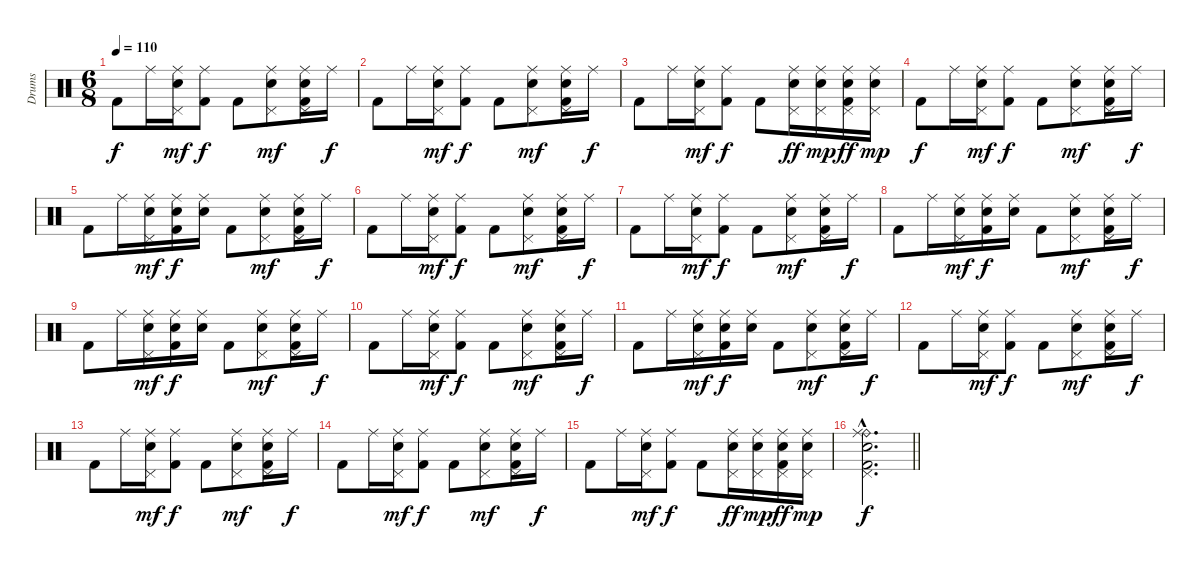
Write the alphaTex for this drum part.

\track ("Drums" "Drums") {instrument percussion}
\staff {score}
\articulation defaults
\ts (6 8)
\tempo 110
\clef neutral
\ks c "Kick (hit) 2".8{dy f} "Ride (middle)".16
("Ride (middle)" "Pedal Hi-Hat (hit)" "Electric Snare (hit)").16{dy mf} ("Ride (middle)" "Kick (hit) 2").8{dy f} "Kick (hit) 2".8 ("Ride (middle)" "Pedal Hi-Hat (hit)" "Electric Snare (hit)").8{dy mf} ("Ride (middle)" "Pedal Hi-Hat (hit)" "Electric Snare (hit)" "Kick (hit) 2").16 "Ride (middle)".16{dy f} |
"Kick (hit) 2".8 "Ride (middle)".16 ("Ride (middle)" "Pedal Hi-Hat (hit)" "Electric Snare (hit)").16{dy mf} ("Ride (middle)" "Kick (hit) 2").8{dy f} "Kick (hit) 2".8 ("Ride (middle)" "Pedal Hi-Hat (hit)" "Electric Snare (hit)").8{dy mf} ("Ride (middle)" "Pedal Hi-Hat (hit)" "Electric Snare (hit)" "Kick (hit) 2").16 "Ride (middle)".16{dy f} |
"Kick (hit) 2".8 "Ride (middle)".16 ("Ride (middle)" "Pedal Hi-Hat (hit)" "Electric Snare (hit)").16{dy mf} ("Ride (middle)" "Kick (hit) 2").8{dy f} "Kick (hit) 2".8 ("Ride (middle)" "Pedal Hi-Hat (hit)" "Electric Snare (hit)").16{dy ff} ("Ride (middle)" "Pedal Hi-Hat (hit)" "Electric Snare (hit)").16{dy mp} ("Ride (middle)" "Pedal Hi-Hat (hit)" "Electric Snare (hit)" "Kick (hit) 2").16{dy ff} ("Ride (middle)" "Pedal Hi-Hat (hit)" "Electric Snare (hit)").16{dy mp} |
"Kick (hit) 2".8{dy f} "Ride (middle)".16 ("Ride (middle)" "Pedal Hi-Hat (hit)" "Electric Snare (hit)").16{dy mf} ("Ride (middle)" "Kick (hit) 2").8{dy f} "Kick (hit) 2".8 ("Ride (middle)" "Pedal Hi-Hat (hit)" "Electric Snare (hit)").8{dy mf} ("Ride (middle)" "Pedal Hi-Hat (hit)" "Electric Snare (hit)" "Kick (hit) 2").16 "Ride (middle)".16{dy f} |
"Kick (hit) 2".8 "Ride (middle)".16 ("Ride (middle)" "Pedal Hi-Hat (hit)" "Electric Snare (hit)").16{dy mf} ("Ride (middle)" "Electric Snare (hit)" "Kick (hit) 2").16{dy f} ("Ride (middle)" "Electric Snare (hit)").16 "Kick (hit) 2".8 ("Ride (middle)" "Pedal Hi-Hat (hit)" "Electric Snare (hit)").8{dy mf} ("Ride (middle)" "Pedal Hi-Hat (hit)" "Electric Snare (hit)" "Kick (hit) 2").16 "Ride (middle)".16{dy f} |
"Kick (hit) 2".8 "Ride (middle)".16 ("Ride (middle)" "Pedal Hi-Hat (hit)" "Electric Snare (hit)").16{dy mf} ("Ride (middle)" "Kick (hit) 2").8{dy f} "Kick (hit) 2".8 ("Ride (middle)" "Pedal Hi-Hat (hit)" "Electric Snare (hit)").8{dy mf} ("Ride (middle)" "Pedal Hi-Hat (hit)" "Electric Snare (hit)" "Kick (hit) 2").16 "Ride (middle)".16{dy f} |
"Kick (hit) 2".8 "Ride (middle)".16 ("Ride (middle)" "Pedal Hi-Hat (hit)" "Electric Snare (hit)").16{dy mf} ("Ride (middle)" "Kick (hit) 2").8{dy f} "Kick (hit) 2".8 ("Ride (middle)" "Pedal Hi-Hat (hit)" "Electric Snare (hit)").8{dy mf} ("Ride (middle)" "Pedal Hi-Hat (hit)" "Electric Snare (hit)" "Kick (hit) 2").16 "Ride (middle)".16{dy f} |
"Kick (hit) 2".8 "Ride (middle)".16 ("Ride (middle)" "Pedal Hi-Hat (hit)" "Electric Snare (hit)").16{dy mf} ("Ride (middle)" "Electric Snare (hit)" "Kick (hit) 2").16{dy f} ("Ride (middle)" "Electric Snare (hit)").16 "Kick (hit) 2".8 ("Ride (middle)" "Pedal Hi-Hat (hit)" "Electric Snare (hit)").8{dy mf} ("Ride (middle)" "Pedal Hi-Hat (hit)" "Electric Snare (hit)" "Kick (hit) 2").16 "Ride (middle)".16{dy f} |
"Kick (hit) 2".8 "Ride (middle)".16 ("Ride (middle)" "Pedal Hi-Hat (hit)" "Electric Snare (hit)").16{dy mf} ("Ride (middle)" "Electric Snare (hit)" "Kick (hit) 2").16{dy f} ("Ride (middle)" "Electric Snare (hit)").16 "Kick (hit) 2".8 ("Ride (middle)" "Pedal Hi-Hat (hit)" "Electric Snare (hit)").8{dy mf} ("Ride (middle)" "Pedal Hi-Hat (hit)" "Electric Snare (hit)" "Kick (hit) 2").16 "Ride (middle)".16{dy f} |
"Kick (hit) 2".8 "Ride (middle)".16 ("Ride (middle)" "Pedal Hi-Hat (hit)" "Electric Snare (hit)").16{dy mf} ("Ride (middle)" "Kick (hit) 2").8{dy f} "Kick (hit) 2".8 ("Ride (middle)" "Pedal Hi-Hat (hit)" "Electric Snare (hit)").8{dy mf} ("Ride (middle)" "Pedal Hi-Hat (hit)" "Electric Snare (hit)" "Kick (hit) 2").16 "Ride (middle)".16{dy f} |
"Kick (hit) 2".8 "Ride (middle)".16 ("Ride (middle)" "Pedal Hi-Hat (hit)" "Electric Snare (hit)").16{dy mf} ("Ride (middle)" "Electric Snare (hit)" "Kick (hit) 2").16{dy f} ("Ride (middle)" "Electric Snare (hit)").16 "Kick (hit) 2".8 ("Ride (middle)" "Pedal Hi-Hat (hit)" "Electric Snare (hit)").8{dy mf} ("Ride (middle)" "Pedal Hi-Hat (hit)" "Electric Snare (hit)" "Kick (hit) 2").16 "Ride (middle)".16{dy f} |
"Kick (hit) 2".8 "Ride (middle)".16 ("Ride (middle)" "Pedal Hi-Hat (hit)" "Electric Snare (hit)").16{dy mf} ("Ride (middle)" "Kick (hit) 2").8{dy f} "Kick (hit) 2".8 ("Ride (middle)" "Pedal Hi-Hat (hit)" "Electric Snare (hit)").8{dy mf} ("Ride (middle)" "Pedal Hi-Hat (hit)" "Electric Snare (hit)" "Kick (hit) 2").16 "Ride (middle)".16{dy f} |
"Kick (hit) 2".8 "Ride (middle)".16 ("Ride (middle)" "Pedal Hi-Hat (hit)" "Electric Snare (hit)").16{dy mf} ("Ride (middle)" "Kick (hit) 2").8{dy f} "Kick (hit) 2".8 ("Ride (middle)" "Pedal Hi-Hat (hit)" "Electric Snare (hit)").8{dy mf} ("Ride (middle)" "Pedal Hi-Hat (hit)" "Electric Snare (hit)" "Kick (hit) 2").16 "Ride (middle)".16{dy f} |
"Kick (hit) 2".8 "Ride (middle)".16 ("Ride (middle)" "Pedal Hi-Hat (hit)" "Electric Snare (hit)").16{dy mf} ("Ride (middle)" "Kick (hit) 2").8{dy f} "Kick (hit) 2".8 ("Ride (middle)" "Pedal Hi-Hat (hit)" "Electric Snare (hit)").8{dy mf} ("Ride (middle)" "Pedal Hi-Hat (hit)" "Electric Snare (hit)" "Kick (hit) 2").16 "Ride (middle)".16{dy f} |
"Kick (hit) 2".8 "Ride (middle)".16 ("Ride (middle)" "Pedal Hi-Hat (hit)" "Electric Snare (hit)").16{dy mf} ("Ride (middle)" "Kick (hit) 2").8{dy f} "Kick (hit) 2".8 ("Ride (middle)" "Pedal Hi-Hat (hit)" "Electric Snare (hit)").16{dy ff} ("Ride (middle)" "Pedal Hi-Hat (hit)" "Electric Snare (hit)").16{dy mp} ("Ride (middle)" "Pedal Hi-Hat (hit)" "Electric Snare (hit)" "Kick (hit) 2").16{dy ff} ("Ride (middle)" "Pedal Hi-Hat (hit)" "Electric Snare (hit)").16{dy mp} |
\barLineRight lightlight
("Ride (bell)"{hac} "Ride (middle)"{hac} "Pedal Hi-Hat (hit)"{hac} "Electric Snare (hit)"{hac} "Kick (hit) 2"{hac}).2{d dy f}
